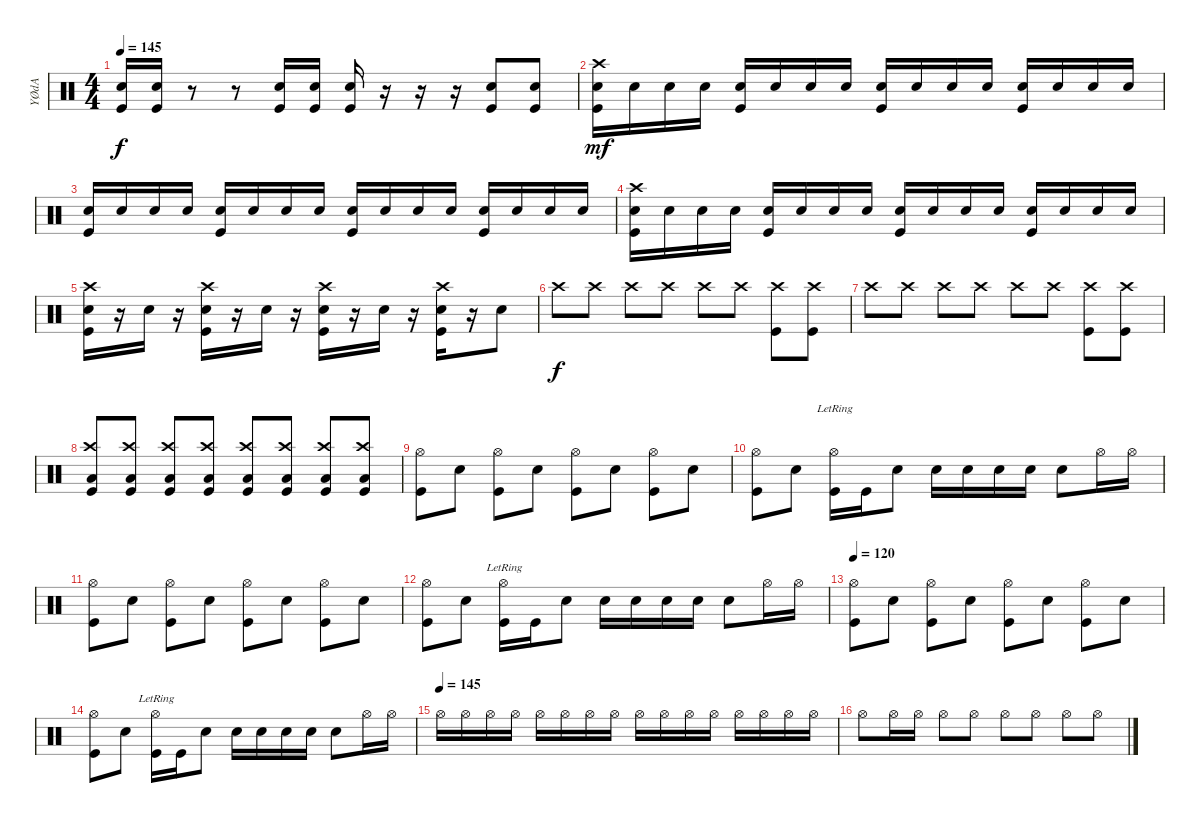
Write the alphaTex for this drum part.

\track ("YØdA" "YØdA") {instrument percussion}
\staff {score}
\articulation defaults
\ts (4 4)
\tempo 145
\clef neutral
\ks c
("Electric Snare (hit)" "Kick (hit)").16{dy f} ("Electric Snare (hit)" "Kick (hit)").16 r.8 r.8 ("Electric Snare (hit)" "Kick (hit)").16 ("Electric Snare (hit)" "Kick (hit)").16 ("Electric Snare (hit)" "Kick (hit)").16 r.16 r.16 r.16 ("Electric Snare (hit)" "Kick (hit)").8 ("Electric Snare (hit)" "Kick (hit)").8 |
("Crash high (hit)" "Electric Snare (hit)" "Kick (hit)").16{dy mf} "Electric Snare (hit)".16 "Electric Snare (hit)".16 "Electric Snare (hit)".16 ("Electric Snare (hit)" "Kick (hit)").16 "Electric Snare (hit)".16 "Electric Snare (hit)".16 "Electric Snare (hit)".16 ("Electric Snare (hit)" "Kick (hit)").16 "Electric Snare (hit)".16 "Electric Snare (hit)".16 "Electric Snare (hit)".16 ("Electric Snare (hit)" "Kick (hit)").16 "Electric Snare (hit)".16 "Electric Snare (hit)".16 "Electric Snare (hit)".16 |
("Electric Snare (hit)" "Kick (hit)").16 "Electric Snare (hit)".16 "Electric Snare (hit)".16 "Electric Snare (hit)".16 ("Electric Snare (hit)" "Kick (hit)").16 "Electric Snare (hit)".16 "Electric Snare (hit)".16 "Electric Snare (hit)".16 ("Electric Snare (hit)" "Kick (hit)").16 "Electric Snare (hit)".16 "Electric Snare (hit)".16 "Electric Snare (hit)".16 ("Electric Snare (hit)" "Kick (hit)").16 "Electric Snare (hit)".16 "Electric Snare (hit)".16 "Electric Snare (hit)".16 |
("Crash high (hit)" "Electric Snare (hit)" "Kick (hit)").16 "Electric Snare (hit)".16 "Electric Snare (hit)".16 "Electric Snare (hit)".16 ("Electric Snare (hit)" "Kick (hit)").16 "Electric Snare (hit)".16 "Electric Snare (hit)".16 "Electric Snare (hit)".16 ("Electric Snare (hit)" "Kick (hit)").16 "Electric Snare (hit)".16 "Electric Snare (hit)".16 "Electric Snare (hit)".16 ("Electric Snare (hit)" "Kick (hit)").16 "Electric Snare (hit)".16 "Electric Snare (hit)".16 "Electric Snare (hit)".16 |
("Crash high (hit)" "Electric Snare (hit)" "Kick (hit)").16 r.16 "Electric Snare (hit)".16 r.16 ("Crash high (hit)" "Electric Snare (hit)" "Kick (hit)").16 r.16 "Electric Snare (hit)".16 r.16 ("Crash high (hit)" "Electric Snare (hit)" "Kick (hit)").16 r.16 "Electric Snare (hit)".16 r.16 ("Crash high (hit)" "Electric Snare (hit)" "Kick (hit)").16 r.16 "Electric Snare (hit)".8 |
"Crash high (hit)".8{dy f} "Crash high (hit)".8 "Crash high (hit)".8 "Crash high (hit)".8 "Crash high (hit)".8 "Crash high (hit)".8 ("Crash high (hit)" "Kick (hit)").8 ("Crash high (hit)" "Kick (hit)").8 |
"Crash high (hit)".8 "Crash high (hit)".8 "Crash high (hit)".8 "Crash high (hit)".8 "Crash high (hit)".8 "Crash high (hit)".8 ("Crash high (hit)" "Kick (hit)").8 ("Crash high (hit)" "Kick (hit)").8 |
("Crash high (hit)" "Low Tom (hit)" "Kick (hit)").8 ("Crash high (hit)" "Low Tom (hit)" "Kick (hit)").8 ("Crash high (hit)" "Low Tom (hit)" "Kick (hit)").8 ("Crash high (hit)" "Low Tom (hit)" "Kick (hit)").8 ("Crash high (hit)" "Low Tom (hit)" "Kick (hit)").8 ("Crash high (hit)" "Low Tom (hit)" "Kick (hit)").8 ("Crash high (hit)" "Low Tom (hit)" "Kick (hit)").8 ("Crash high (hit)" "Low Tom (hit)" "Kick (hit)").8 |
("Hi-Hat (open)" "Kick (hit)").8 "Electric Snare (hit)".8 ("Hi-Hat (open)" "Kick (hit)").8 "Electric Snare (hit)".8 ("Hi-Hat (open)" "Kick (hit)").8 "Electric Snare (hit)".8 ("Hi-Hat (open)" "Kick (hit)").8 "Electric Snare (hit)".8 |
("Hi-Hat (open)" "Kick (hit)").8 "Electric Snare (hit)".8 ("Hi-Hat (open)"{lr} "Kick (hit)").16 "Kick (hit)".16 "Electric Snare (hit)".8 "Electric Snare (hit)".16 "Electric Snare (hit)".16 "Electric Snare (hit)".16 "Electric Snare (hit)".16 "Electric Snare (hit)".8 "Hi-Hat (open)".16 "Hi-Hat (open)".16 |
("Hi-Hat (open)" "Kick (hit)").8 "Electric Snare (hit)".8 ("Hi-Hat (open)" "Kick (hit)").8 "Electric Snare (hit)".8 ("Hi-Hat (open)" "Kick (hit)").8 "Electric Snare (hit)".8 ("Hi-Hat (open)" "Kick (hit)").8 "Electric Snare (hit)".8 |
("Hi-Hat (open)" "Kick (hit)").8 "Electric Snare (hit)".8 ("Hi-Hat (open)"{lr} "Kick (hit)").16 "Kick (hit)".16 "Electric Snare (hit)".8 "Electric Snare (hit)".16 "Electric Snare (hit)".16 "Electric Snare (hit)".16 "Electric Snare (hit)".16 "Electric Snare (hit)".8 "Hi-Hat (open)".16 "Hi-Hat (open)".16 |
\tempo 120
("Hi-Hat (open)" "Kick (hit)").8 "Electric Snare (hit)".8 ("Hi-Hat (open)" "Kick (hit)").8 "Electric Snare (hit)".8 ("Hi-Hat (open)" "Kick (hit)").8 "Electric Snare (hit)".8 ("Hi-Hat (open)" "Kick (hit)").8 "Electric Snare (hit)".8 |
("Hi-Hat (open)" "Kick (hit)").8 "Electric Snare (hit)".8 ("Hi-Hat (open)"{lr} "Kick (hit)").16 "Kick (hit)".16 "Electric Snare (hit)".8 "Electric Snare (hit)".16 "Electric Snare (hit)".16 "Electric Snare (hit)".16 "Electric Snare (hit)".16 "Electric Snare (hit)".8 "Hi-Hat (open)".16 "Hi-Hat (open)".16 |
\tempo (145)
"Hi-Hat (open)".16 "Hi-Hat (open)".16 "Hi-Hat (open)".16 "Hi-Hat (open)".16 "Hi-Hat (open)".16 "Hi-Hat (open)".16 "Hi-Hat (open)".16 "Hi-Hat (open)".16 "Hi-Hat (open)".16 "Hi-Hat (open)".16 "Hi-Hat (open)".16 "Hi-Hat (open)".16 "Hi-Hat (open)".16 "Hi-Hat (open)".16 "Hi-Hat (open)".16 "Hi-Hat (open)".16 |
"Hi-Hat (open)".8 "Hi-Hat (open)".16 "Hi-Hat (open)".16 "Hi-Hat (open)".8 "Hi-Hat (open)".8 "Hi-Hat (open)".8 "Hi-Hat (open)".8 "Hi-Hat (open)".8 "Hi-Hat (open)".8
